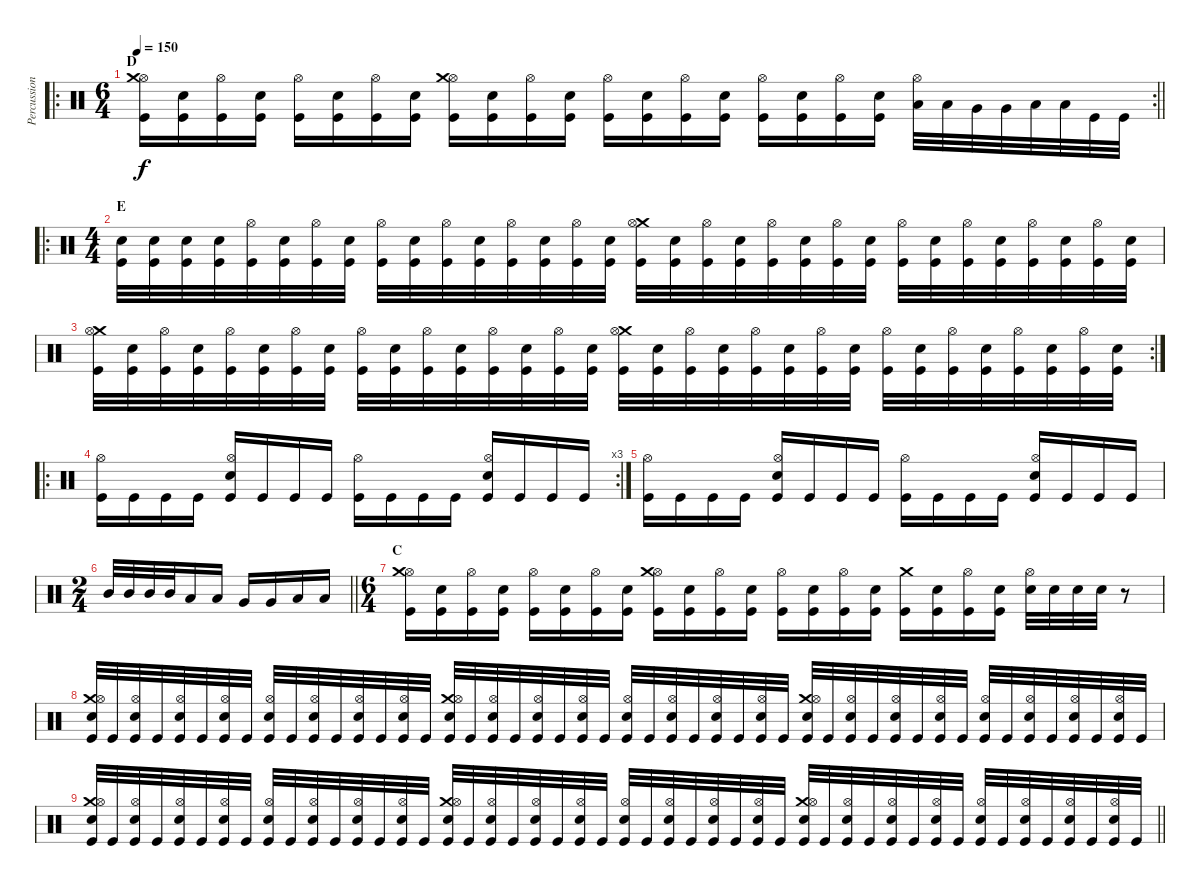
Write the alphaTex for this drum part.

\track ("Percussion" "Percussion") {instrument percussion}
\staff {score}
\articulation defaults
\ro
\rc 2
\ts (6 4)
\section ("" "D")
\tempo 150
\clef neutral
\barLineRight lightlight
\ks c
("Kick (hit)" "Hi-Hat (open)" "Crash medium (hit)").16{dy f} ("Kick (hit)" "Snare (hit) 2").16 ("Kick (hit)" "Hi-Hat (open)").16 ("Kick (hit)" "Snare (hit) 2").16 ("Kick (hit)" "Hi-Hat (open)").16 ("Kick (hit)" "Snare (hit) 2").16 ("Kick (hit)" "Hi-Hat (open)").16 ("Kick (hit)" "Snare (hit) 2").16 ("Kick (hit)" "Hi-Hat (open)" "Crash medium (hit)").16 ("Kick (hit)" "Snare (hit) 2").16 ("Kick (hit)" "Hi-Hat (open)").16 ("Kick (hit)" "Snare (hit) 2").16 ("Kick (hit)" "Hi-Hat (open)").16 ("Kick (hit)" "Snare (hit) 2").16 ("Kick (hit)" "Hi-Hat (open)").16 ("Kick (hit)" "Snare (hit) 2").16 ("Kick (hit)" "Hi-Hat (open)").16 ("Kick (hit)" "Snare (hit) 2").16 ("Kick (hit)" "Hi-Hat (open)").16 ("Kick (hit)" "Snare (hit) 2").16 ("Low Tom (hit)" "Hi-Hat (open)").32 "Low Tom (hit)".32 "Very Low Tom (hit)".32 "Very Low Tom (hit)".32 "Low Floor Tom (hit)".32 "Low Floor Tom (hit)".32 "Kick (hit)".32 "Kick (hit)".32 |
\ro
\ts (4 4)
\section ("" "E")
("Kick (hit)" "Snare (hit) 2").32 ("Kick (hit)" "Snare (hit) 2").32 ("Kick (hit)" "Snare (hit) 2").32 ("Kick (hit)" "Snare (hit) 2").32 ("Kick (hit)" "Hi-Hat (open)").32 ("Kick (hit)" "Snare (hit) 2").32 ("Kick (hit)" "Hi-Hat (open)").32 ("Kick (hit)" "Snare (hit) 2").32 ("Kick (hit)" "Hi-Hat (open)").32 ("Kick (hit)" "Snare (hit) 2").32 ("Kick (hit)" "Hi-Hat (open)").32 ("Kick (hit)" "Snare (hit) 2").32 ("Kick (hit)" "Hi-Hat (open)").32 ("Kick (hit)" "Snare (hit) 2").32 ("Kick (hit)" "Hi-Hat (open)").32 ("Kick (hit)" "Snare (hit) 2").32 ("Kick (hit)" "Crash medium (hit)" "Hi-Hat (open)").32 ("Kick (hit)" "Snare (hit) 2").32 ("Kick (hit)" "Hi-Hat (open)").32 ("Kick (hit)" "Snare (hit) 2").32 ("Kick (hit)" "Hi-Hat (open)").32 ("Kick (hit)" "Snare (hit) 2").32 ("Kick (hit)" "Hi-Hat (open)").32 ("Kick (hit)" "Snare (hit) 2").32 ("Kick (hit)" "Hi-Hat (open)").32 ("Kick (hit)" "Snare (hit) 2").32 ("Kick (hit)" "Hi-Hat (open)").32 ("Kick (hit)" "Snare (hit) 2").32 ("Kick (hit)" "Hi-Hat (open)").32 ("Kick (hit)" "Snare (hit) 2").32 ("Kick (hit)" "Hi-Hat (open)").32 ("Kick (hit)" "Snare (hit) 2").32 |
\rc 2
("Kick (hit)" "Crash medium (hit)" "Hi-Hat (open)").32 ("Kick (hit)" "Snare (hit) 2").32 ("Kick (hit)" "Hi-Hat (open)").32 ("Kick (hit)" "Snare (hit) 2").32 ("Kick (hit)" "Hi-Hat (open)").32 ("Kick (hit)" "Snare (hit) 2").32 ("Kick (hit)" "Hi-Hat (open)").32 ("Kick (hit)" "Snare (hit) 2").32 ("Kick (hit)" "Hi-Hat (open)").32 ("Kick (hit)" "Snare (hit) 2").32 ("Kick (hit)" "Hi-Hat (open)").32 ("Kick (hit)" "Snare (hit) 2").32 ("Kick (hit)" "Hi-Hat (open)").32 ("Kick (hit)" "Snare (hit) 2").32 ("Kick (hit)" "Hi-Hat (open)").32 ("Kick (hit)" "Snare (hit) 2").32 ("Kick (hit)" "Crash medium (hit)" "Hi-Hat (open)").32 ("Kick (hit)" "Snare (hit) 2").32 ("Kick (hit)" "Hi-Hat (open)").32 ("Kick (hit)" "Snare (hit) 2").32 ("Kick (hit)" "Hi-Hat (open)").32 ("Kick (hit)" "Snare (hit) 2").32 ("Kick (hit)" "Hi-Hat (open)").32 ("Kick (hit)" "Snare (hit) 2").32 ("Kick (hit)" "Hi-Hat (open)").32 ("Kick (hit)" "Snare (hit) 2").32 ("Kick (hit)" "Hi-Hat (open)").32 ("Kick (hit)" "Snare (hit) 2").32 ("Kick (hit)" "Hi-Hat (open)").32 ("Kick (hit)" "Snare (hit) 2").32 ("Kick (hit)" "Hi-Hat (open)").32 ("Kick (hit)" "Snare (hit) 2").32 |
\ro
\rc 3
("Kick (hit)" "Hi-Hat (open)").16 "Kick (hit)".16 "Kick (hit)".16 "Kick (hit)".16 ("Kick (hit)" "Snare (hit) 2" "Hi-Hat (open)").16 "Kick (hit)".16 "Kick (hit)".16 "Kick (hit)".16 ("Kick (hit)" "Hi-Hat (open)").16 "Kick (hit)".16 "Kick (hit)".16 "Kick (hit)".16 ("Kick (hit)" "Snare (hit) 2" "Hi-Hat (open)").16 "Kick (hit)".16 "Kick (hit)".16 "Kick (hit)".16 |
("Kick (hit)" "Hi-Hat (open)").16 "Kick (hit)".16 "Kick (hit)".16 "Kick (hit)".16 ("Kick (hit)" "Snare (hit) 2" "Hi-Hat (open)").16 "Kick (hit)".16 "Kick (hit)".16 "Kick (hit)".16 ("Kick (hit)" "Hi-Hat (open)").16 "Kick (hit)".16 "Kick (hit)".16 "Kick (hit)".16 ("Kick (hit)" "Snare (hit) 2" "Hi-Hat (open)").16 "Kick (hit)".16 "Kick (hit)".16 "Kick (hit)".16 |
\ts (2 4)
\barLineRight lightlight "Mid Tom (hit)".32 "Mid Tom (hit)".32 "Mid Tom (hit)".32 "Mid Tom (hit)".32 "Low Tom (hit)".16 "Low Tom (hit)".16 "Very Low Tom (hit)".16 "Very Low Tom (hit)".16 "Low Floor Tom (hit)".16 "Low Floor Tom (hit)".16
|
\ts (6 4)
\section ("" "C")
("Kick (hit)" "Hi-Hat (open)" "Crash medium (hit)").16 ("Kick (hit)" "Snare (hit) 2").16 ("Kick (hit)" "Hi-Hat (open)").16 ("Kick (hit)" "Snare (hit) 2").16 ("Kick (hit)" "Hi-Hat (open)").16 ("Kick (hit)" "Snare (hit) 2").16 ("Kick (hit)" "Hi-Hat (open)").16 ("Kick (hit)" "Snare (hit) 2").16 ("Kick (hit)" "Hi-Hat (open)" "Crash medium (hit)").16 ("Kick (hit)" "Snare (hit) 2").16 ("Kick (hit)" "Hi-Hat (open)").16 ("Kick (hit)" "Snare (hit) 2").16 ("Kick (hit)" "Hi-Hat (open)").16 ("Kick (hit)" "Snare (hit) 2").16 ("Kick (hit)" "Hi-Hat (open)").16 ("Kick (hit)" "Snare (hit) 2").16 ("Kick (hit)" "Crash medium (hit)").16 ("Kick (hit)" "Snare (hit) 2").16 ("Kick (hit)" "Hi-Hat (open)").16 ("Kick (hit)" "Snare (hit) 2").16 ("Snare (hit) 2" "Hi-Hat (open)").32 "Snare (hit) 2".32 "Snare (hit) 2".32 "Snare (hit) 2".32 r.8 |
("Kick (hit)" "Snare (hit) 2" "Crash medium (hit)" "Hi-Hat (open)").32 "Kick (hit)".32 ("Kick (hit)" "Snare (hit) 2" "Hi-Hat (open)").32 "Kick (hit)".32 ("Kick (hit)" "Snare (hit) 2" "Hi-Hat (open)").32 "Kick (hit)".32 ("Kick (hit)" "Snare (hit) 2" "Hi-Hat (open)").32 "Kick (hit)".32 ("Kick (hit)" "Snare (hit) 2" "Hi-Hat (open)").32 "Kick (hit)".32 ("Kick (hit)" "Snare (hit) 2" "Hi-Hat (open)").32 "Kick (hit)".32 ("Kick (hit)" "Snare (hit) 2" "Hi-Hat (open)").32 "Kick (hit)".32 ("Kick (hit)" "Snare (hit) 2" "Hi-Hat (open)").32 "Kick (hit)".32 ("Kick (hit)" "Snare (hit) 2" "Crash medium (hit)" "Hi-Hat (open)").32 "Kick (hit)".32 ("Kick (hit)" "Snare (hit) 2" "Hi-Hat (open)").32 "Kick (hit)".32 ("Kick (hit)" "Snare (hit) 2" "Hi-Hat (open)").32 "Kick (hit)".32 ("Kick (hit)" "Snare (hit) 2" "Hi-Hat (open)").32 "Kick (hit)".32 ("Kick (hit)" "Snare (hit) 2" "Hi-Hat (open)").32 "Kick (hit)".32 ("Kick (hit)" "Snare (hit) 2" "Hi-Hat (open)").32 "Kick (hit)".32 ("Kick (hit)" "Snare (hit) 2" "Hi-Hat (open)").32 "Kick (hit)".32 ("Kick (hit)" "Snare (hit) 2" "Hi-Hat (open)").32 "Kick (hit)".32 ("Kick (hit)" "Snare (hit) 2" "Crash medium (hit)" "Hi-Hat (open)").32 "Kick (hit)".32 ("Kick (hit)" "Snare (hit) 2" "Hi-Hat (open)").32 "Kick (hit)".32 ("Kick (hit)" "Snare (hit) 2" "Hi-Hat (open)").32 "Kick (hit)".32 ("Kick (hit)" "Snare (hit) 2" "Hi-Hat (open)").32 "Kick (hit)".32 ("Kick (hit)" "Snare (hit) 2" "Hi-Hat (open)").32 "Kick (hit)".32 ("Kick (hit)" "Snare (hit) 2" "Hi-Hat (open)").32 "Kick (hit)".32 ("Kick (hit)" "Snare (hit) 2" "Hi-Hat (open)").32 "Kick (hit)".32 ("Kick (hit)" "Snare (hit) 2" "Hi-Hat (open)").32 "Kick (hit)".32 |
\barLineRight lightlight
("Kick (hit)" "Snare (hit) 2" "Crash medium (hit)" "Hi-Hat (open)").32 "Kick (hit)".32 ("Kick (hit)" "Snare (hit) 2" "Hi-Hat (open)").32 "Kick (hit)".32 ("Kick (hit)" "Snare (hit) 2" "Hi-Hat (open)").32 "Kick (hit)".32 ("Kick (hit)" "Snare (hit) 2" "Hi-Hat (open)").32 "Kick (hit)".32 ("Kick (hit)" "Snare (hit) 2" "Hi-Hat (open)").32 "Kick (hit)".32 ("Kick (hit)" "Snare (hit) 2" "Hi-Hat (open)").32 "Kick (hit)".32 ("Kick (hit)" "Snare (hit) 2" "Hi-Hat (open)").32 "Kick (hit)".32 ("Kick (hit)" "Snare (hit) 2" "Hi-Hat (open)").32 "Kick (hit)".32 ("Kick (hit)" "Snare (hit) 2" "Crash medium (hit)" "Hi-Hat (open)").32 "Kick (hit)".32 ("Kick (hit)" "Snare (hit) 2" "Hi-Hat (open)").32 "Kick (hit)".32 ("Kick (hit)" "Snare (hit) 2" "Hi-Hat (open)").32 "Kick (hit)".32 ("Kick (hit)" "Snare (hit) 2" "Hi-Hat (open)").32 "Kick (hit)".32 ("Kick (hit)" "Snare (hit) 2" "Hi-Hat (open)").32 "Kick (hit)".32 ("Kick (hit)" "Snare (hit) 2" "Hi-Hat (open)").32 "Kick (hit)".32 ("Kick (hit)" "Snare (hit) 2" "Hi-Hat (open)").32 "Kick (hit)".32 ("Kick (hit)" "Snare (hit) 2" "Hi-Hat (open)").32 "Kick (hit)".32 ("Kick (hit)" "Snare (hit) 2" "Crash medium (hit)" "Hi-Hat (open)").32 "Kick (hit)".32 ("Kick (hit)" "Snare (hit) 2" "Hi-Hat (open)").32 "Kick (hit)".32 ("Kick (hit)" "Snare (hit) 2" "Hi-Hat (open)").32 "Kick (hit)".32 ("Kick (hit)" "Snare (hit) 2" "Hi-Hat (open)").32 "Kick (hit)".32 ("Kick (hit)" "Snare (hit) 2" "Hi-Hat (open)").32 "Kick (hit)".32 ("Kick (hit)" "Snare (hit) 2" "Hi-Hat (open)").32 "Kick (hit)".32 ("Kick (hit)" "Snare (hit) 2" "Hi-Hat (open)").32 "Kick (hit)".32 ("Kick (hit)" "Snare (hit) 2" "Hi-Hat (open)").32 "Kick (hit)".32
